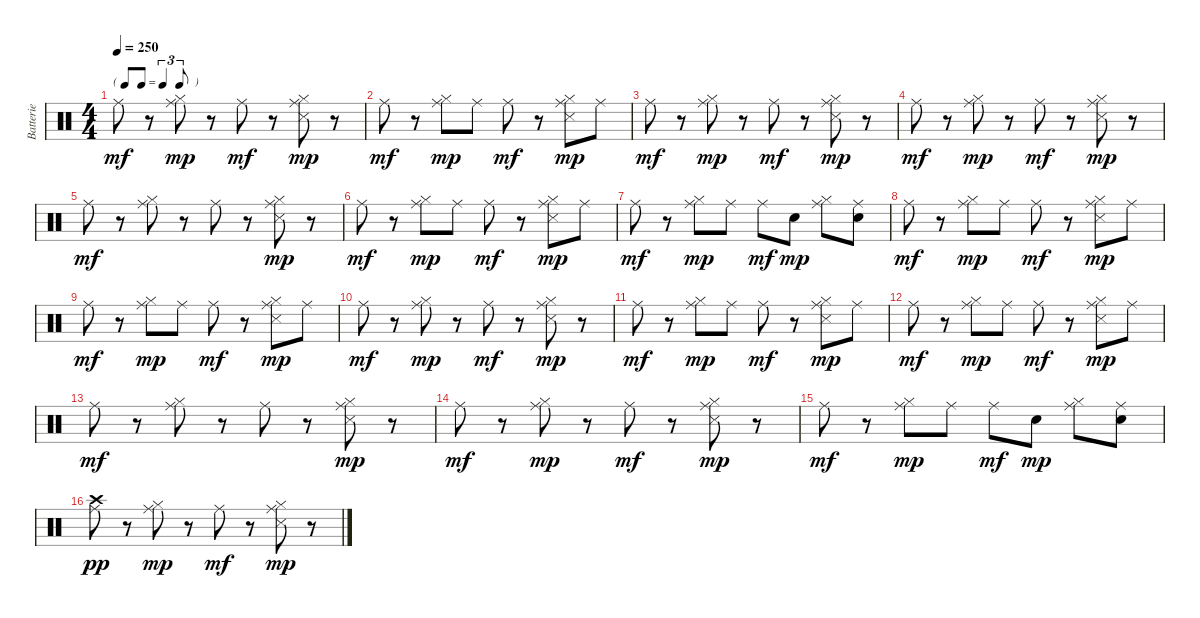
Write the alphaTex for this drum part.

\track ("Batterie" "Batterie") {instrument percussion}
\staff {score}
\articulation defaults
\ts (4 4)
\tf triplet8th
\tempo 250
\clef neutral
\ks c "Ride (middle)".8{dy mf}
r.8 ("Hi-Hat (closed)" "Ride (middle)").8{dy mp} r.8 "Ride (middle)".8{dy mf} r.8 ("Hi-Hat (closed)" "Snare (side stick) 3" "Ride (middle)").8{dy mp} r.8 |
"Ride (middle)".8{dy mf} r.8 ("Hi-Hat (closed)" "Ride (middle)").8{dy mp} "Ride (middle)".8 "Ride (middle)".8{dy mf} r.8 ("Hi-Hat (closed)" "Snare (side stick) 3" "Ride (middle)").8{dy mp} "Ride (middle)".8 |
"Ride (middle)".8{dy mf} r.8 ("Hi-Hat (closed)" "Ride (middle)").8{dy mp} r.8 "Ride (middle)".8{dy mf} r.8 ("Hi-Hat (closed)" "Snare (side stick) 3" "Ride (middle)").8{dy mp} r.8 |
"Ride (middle)".8{dy mf} r.8 ("Hi-Hat (closed)" "Ride (middle)").8{dy mp} r.8 "Ride (middle)".8{dy mf} r.8 ("Hi-Hat (closed)" "Snare (side stick) 3" "Ride (middle)").8{dy mp} r.8 |
"Ride (middle)".8{dy mf} r.8 ("Hi-Hat (closed)" "Ride (middle)").8 r.8 "Ride (middle)".8 r.8 ("Hi-Hat (closed)" "Snare (side stick) 3" "Ride (middle)").8{dy mp} r.8 |
"Ride (middle)".8{dy mf} r.8 ("Hi-Hat (closed)" "Ride (middle)").8{dy mp} "Ride (middle)".8 "Ride (middle)".8{dy mf} r.8 ("Hi-Hat (closed)" "Snare (side stick) 3" "Ride (middle)").8{dy mp} "Ride (middle)".8 |
"Ride (middle)".8{dy mf} r.8 ("Hi-Hat (closed)" "Ride (middle)").8{dy mp} "Ride (middle)".8 "Ride (middle)".8{dy mf} "Snare (hit) 2".8{dy mp} ("Hi-Hat (closed)" "Ride (middle)").8 ("Snare (hit) 2" "Ride (middle)").8 |
"Ride (middle)".8{dy mf} r.8 ("Hi-Hat (closed)" "Ride (middle)").8{dy mp} "Ride (middle)".8 "Ride (middle)".8{dy mf} r.8 ("Hi-Hat (closed)" "Snare (side stick) 3" "Ride (middle)").8{dy mp} "Ride (middle)".8 |
"Ride (middle)".8{dy mf} r.8 ("Hi-Hat (closed)" "Ride (middle)").8{dy mp} "Ride (middle)".8 "Ride (middle)".8{dy mf} r.8 ("Hi-Hat (closed)" "Snare (side stick) 3" "Ride (middle)").8{dy mp} "Ride (middle)".8 |
"Ride (middle)".8{dy mf} r.8 ("Hi-Hat (closed)" "Ride (middle)").8{dy mp} r.8 "Ride (middle)".8{dy mf} r.8 ("Hi-Hat (closed)" "Snare (side stick) 3" "Ride (middle)").8{dy mp} r.8 |
"Ride (middle)".8{dy mf} r.8 ("Hi-Hat (closed)" "Ride (middle)").8{dy mp} "Ride (middle)".8 "Ride (middle)".8{dy mf} r.8 ("Hi-Hat (closed)" "Snare (side stick) 3" "Ride (middle)").8{dy mp} "Ride (middle)".8 |
"Ride (middle)".8{dy mf} r.8 ("Hi-Hat (closed)" "Ride (middle)").8{dy mp} "Ride (middle)".8 "Ride (middle)".8{dy mf} r.8 ("Hi-Hat (closed)" "Snare (side stick) 3" "Ride (middle)").8{dy mp} "Ride (middle)".8 |
"Ride (middle)".8{dy mf} r.8 ("Hi-Hat (closed)" "Ride (middle)").8 r.8 "Ride (middle)".8 r.8 ("Hi-Hat (closed)" "Snare (side stick) 3" "Ride (middle)").8{dy mp} r.8 |
"Ride (middle)".8{dy mf} r.8 ("Hi-Hat (closed)" "Ride (middle)").8{dy mp} r.8 "Ride (middle)".8{dy mf} r.8 ("Hi-Hat (closed)" "Snare (side stick) 3" "Ride (middle)").8{dy mp} r.8 |
"Ride (middle)".8{dy mf} r.8 ("Hi-Hat (closed)" "Ride (middle)").8{dy mp} "Ride (middle)".8 "Ride (middle)".8{dy mf} "Snare (hit) 2".8{dy mp} ("Hi-Hat (closed)" "Ride (middle)").8 ("Snare (hit) 2" "Ride (middle)").8 |
("Ride (middle)" "Crash high (hit)").8{dy pp} r.8 ("Hi-Hat (closed)" "Ride (middle)").8{dy mp} r.8 "Ride (middle)".8{dy mf} r.8 ("Hi-Hat (closed)" "Snare (side stick) 3" "Ride (middle)").8{dy mp} r.8
